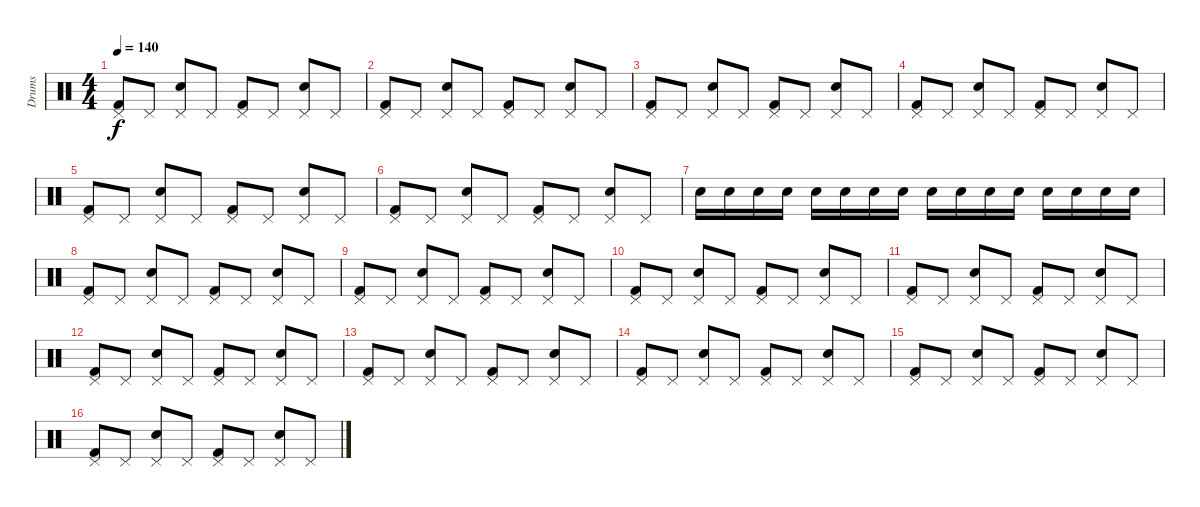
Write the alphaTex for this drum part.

\track ("Drums" "Drums") {instrument percussion}
\staff {score}
\articulation defaults
\ts (4 4)
\tempo 140
\clef neutral
\ks c
("Kick (hit) 2" "Pedal Hi-Hat (hit)").8{dy f} "Pedal Hi-Hat (hit)".8 ("Snare (hit) 2" "Pedal Hi-Hat (hit)").8 "Pedal Hi-Hat (hit)".8 ("Kick (hit) 2" "Pedal Hi-Hat (hit)").8 "Pedal Hi-Hat (hit)".8 ("Snare (hit) 2" "Pedal Hi-Hat (hit)").8 "Pedal Hi-Hat (hit)".8 |
("Kick (hit) 2" "Pedal Hi-Hat (hit)").8 "Pedal Hi-Hat (hit)".8 ("Snare (hit) 2" "Pedal Hi-Hat (hit)").8 "Pedal Hi-Hat (hit)".8 ("Kick (hit) 2" "Pedal Hi-Hat (hit)").8 "Pedal Hi-Hat (hit)".8 ("Snare (hit) 2" "Pedal Hi-Hat (hit)").8 "Pedal Hi-Hat (hit)".8 |
("Kick (hit) 2" "Pedal Hi-Hat (hit)").8 "Pedal Hi-Hat (hit)".8 ("Snare (hit) 2" "Pedal Hi-Hat (hit)").8 "Pedal Hi-Hat (hit)".8 ("Kick (hit) 2" "Pedal Hi-Hat (hit)").8 "Pedal Hi-Hat (hit)".8 ("Snare (hit) 2" "Pedal Hi-Hat (hit)").8 "Pedal Hi-Hat (hit)".8 |
("Kick (hit) 2" "Pedal Hi-Hat (hit)").8 "Pedal Hi-Hat (hit)".8 ("Snare (hit) 2" "Pedal Hi-Hat (hit)").8 "Pedal Hi-Hat (hit)".8 ("Kick (hit) 2" "Pedal Hi-Hat (hit)").8 "Pedal Hi-Hat (hit)".8 ("Snare (hit) 2" "Pedal Hi-Hat (hit)").8 "Pedal Hi-Hat (hit)".8 |
("Kick (hit) 2" "Pedal Hi-Hat (hit)").8 "Pedal Hi-Hat (hit)".8 ("Snare (hit) 2" "Pedal Hi-Hat (hit)").8 "Pedal Hi-Hat (hit)".8 ("Kick (hit) 2" "Pedal Hi-Hat (hit)").8 "Pedal Hi-Hat (hit)".8 ("Snare (hit) 2" "Pedal Hi-Hat (hit)").8 "Pedal Hi-Hat (hit)".8 |
("Kick (hit) 2" "Pedal Hi-Hat (hit)").8 "Pedal Hi-Hat (hit)".8 ("Snare (hit) 2" "Pedal Hi-Hat (hit)").8 "Pedal Hi-Hat (hit)".8 ("Kick (hit) 2" "Pedal Hi-Hat (hit)").8 "Pedal Hi-Hat (hit)".8 ("Snare (hit) 2" "Pedal Hi-Hat (hit)").8 "Pedal Hi-Hat (hit)".8 |
"Snare (hit) 2".16 "Snare (hit) 2".16 "Snare (hit) 2".16 "Snare (hit) 2".16 "Snare (hit) 2".16 "Snare (hit) 2".16 "Snare (hit) 2".16 "Snare (hit) 2".16 "Snare (hit) 2".16 "Snare (hit) 2".16 "Snare (hit) 2".16 "Snare (hit) 2".16 "Snare (hit) 2".16 "Snare (hit) 2".16 "Snare (hit) 2".16 "Snare (hit) 2".16 |
("Kick (hit) 2" "Pedal Hi-Hat (hit)").8 "Pedal Hi-Hat (hit)".8 ("Snare (hit) 2" "Pedal Hi-Hat (hit)").8 "Pedal Hi-Hat (hit)".8 ("Kick (hit) 2" "Pedal Hi-Hat (hit)").8 "Pedal Hi-Hat (hit)".8 ("Snare (hit) 2" "Pedal Hi-Hat (hit)").8 "Pedal Hi-Hat (hit)".8 |
("Kick (hit) 2" "Pedal Hi-Hat (hit)").8 "Pedal Hi-Hat (hit)".8 ("Snare (hit) 2" "Pedal Hi-Hat (hit)").8 "Pedal Hi-Hat (hit)".8 ("Kick (hit) 2" "Pedal Hi-Hat (hit)").8 "Pedal Hi-Hat (hit)".8 ("Snare (hit) 2" "Pedal Hi-Hat (hit)").8 "Pedal Hi-Hat (hit)".8 |
("Kick (hit) 2" "Pedal Hi-Hat (hit)").8 "Pedal Hi-Hat (hit)".8 ("Snare (hit) 2" "Pedal Hi-Hat (hit)").8 "Pedal Hi-Hat (hit)".8 ("Kick (hit) 2" "Pedal Hi-Hat (hit)").8 "Pedal Hi-Hat (hit)".8 ("Snare (hit) 2" "Pedal Hi-Hat (hit)").8 "Pedal Hi-Hat (hit)".8 |
("Kick (hit) 2" "Pedal Hi-Hat (hit)").8 "Pedal Hi-Hat (hit)".8 ("Snare (hit) 2" "Pedal Hi-Hat (hit)").8 "Pedal Hi-Hat (hit)".8 ("Kick (hit) 2" "Pedal Hi-Hat (hit)").8 "Pedal Hi-Hat (hit)".8 ("Snare (hit) 2" "Pedal Hi-Hat (hit)").8 "Pedal Hi-Hat (hit)".8 |
("Kick (hit) 2" "Pedal Hi-Hat (hit)").8 "Pedal Hi-Hat (hit)".8 ("Snare (hit) 2" "Pedal Hi-Hat (hit)").8 "Pedal Hi-Hat (hit)".8 ("Kick (hit) 2" "Pedal Hi-Hat (hit)").8 "Pedal Hi-Hat (hit)".8 ("Snare (hit) 2" "Pedal Hi-Hat (hit)").8 "Pedal Hi-Hat (hit)".8 |
("Kick (hit) 2" "Pedal Hi-Hat (hit)").8 "Pedal Hi-Hat (hit)".8 ("Snare (hit) 2" "Pedal Hi-Hat (hit)").8 "Pedal Hi-Hat (hit)".8 ("Kick (hit) 2" "Pedal Hi-Hat (hit)").8 "Pedal Hi-Hat (hit)".8 ("Snare (hit) 2" "Pedal Hi-Hat (hit)").8 "Pedal Hi-Hat (hit)".8 |
("Kick (hit) 2" "Pedal Hi-Hat (hit)").8 "Pedal Hi-Hat (hit)".8 ("Snare (hit) 2" "Pedal Hi-Hat (hit)").8 "Pedal Hi-Hat (hit)".8 ("Kick (hit) 2" "Pedal Hi-Hat (hit)").8 "Pedal Hi-Hat (hit)".8 ("Snare (hit) 2" "Pedal Hi-Hat (hit)").8 "Pedal Hi-Hat (hit)".8 |
("Kick (hit) 2" "Pedal Hi-Hat (hit)").8 "Pedal Hi-Hat (hit)".8 ("Snare (hit) 2" "Pedal Hi-Hat (hit)").8 "Pedal Hi-Hat (hit)".8 ("Kick (hit) 2" "Pedal Hi-Hat (hit)").8 "Pedal Hi-Hat (hit)".8 ("Snare (hit) 2" "Pedal Hi-Hat (hit)").8 "Pedal Hi-Hat (hit)".8 |
("Kick (hit) 2" "Pedal Hi-Hat (hit)").8 "Pedal Hi-Hat (hit)".8 ("Snare (hit) 2" "Pedal Hi-Hat (hit)").8 "Pedal Hi-Hat (hit)".8 ("Kick (hit) 2" "Pedal Hi-Hat (hit)").8 "Pedal Hi-Hat (hit)".8 ("Snare (hit) 2" "Pedal Hi-Hat (hit)").8 "Pedal Hi-Hat (hit)".8
